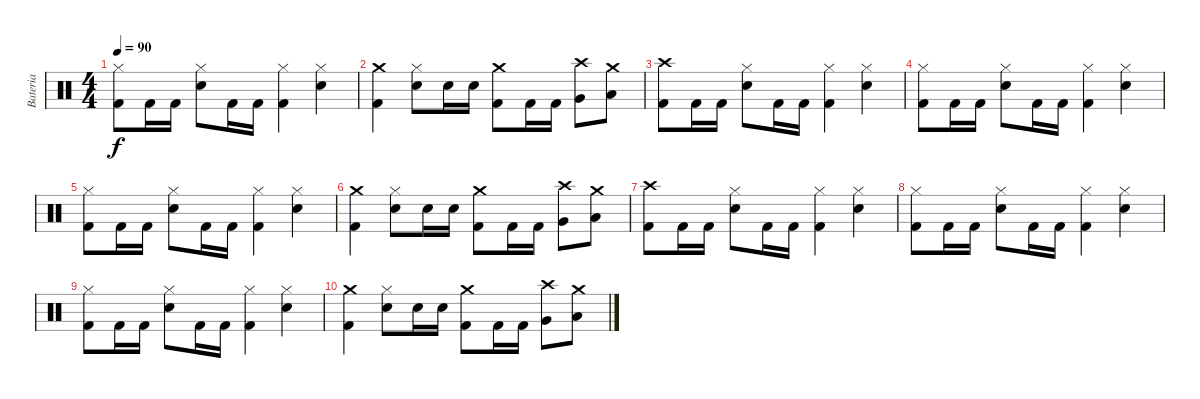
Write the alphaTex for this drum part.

\track ("Bateria" "Bateria") {instrument percussion}
\staff {score}
\articulation defaults
\ts (4 4)
\tempo 90
\clef neutral
\ks c
("Hi-Hat (closed)" "Kick (hit) 2").8{dy f} "Kick (hit) 2".16 "Kick (hit) 2".16 ("Hi-Hat (closed)" "Snare (hit) 2").8 "Kick (hit) 2".16 "Kick (hit) 2".16 ("Hi-Hat (closed)" "Kick (hit) 2").4 ("Hi-Hat (closed)" "Snare (hit) 2").4 |
("Crash medium (hit)" "Kick (hit) 2").4 ("Hi-Hat (closed)" "Snare (hit) 2").8 "Snare (hit) 2".16 "Snare (hit) 2".16 ("Crash medium (hit)" "Kick (hit) 2").8 "Kick (hit) 2".16 "Kick (hit) 2".16 ("Crash high (hit)" "Very Low Tom (hit)").8 ("Crash medium (hit)" "Low Floor Tom (hit)").8 |
("Crash high (hit)" "Kick (hit) 2").8 "Kick (hit) 2".16 "Kick (hit) 2".16 ("Hi-Hat (closed)" "Snare (hit) 2").8 "Kick (hit) 2".16 "Kick (hit) 2".16 ("Hi-Hat (closed)" "Kick (hit) 2").4 ("Hi-Hat (closed)" "Snare (hit) 2").4 |
("Hi-Hat (closed)" "Kick (hit) 2").8 "Kick (hit) 2".16 "Kick (hit) 2".16 ("Hi-Hat (closed)" "Snare (hit) 2").8 "Kick (hit) 2".16 "Kick (hit) 2".16 ("Hi-Hat (closed)" "Kick (hit) 2").4 ("Hi-Hat (closed)" "Snare (hit) 2").4 |
("Hi-Hat (closed)" "Kick (hit) 2").8 "Kick (hit) 2".16 "Kick (hit) 2".16 ("Hi-Hat (closed)" "Snare (hit) 2").8 "Kick (hit) 2".16 "Kick (hit) 2".16 ("Hi-Hat (closed)" "Kick (hit) 2").4 ("Hi-Hat (closed)" "Snare (hit) 2").4 |
("Crash medium (hit)" "Kick (hit) 2").4 ("Hi-Hat (closed)" "Snare (hit) 2").8 "Snare (hit) 2".16 "Snare (hit) 2".16 ("Crash medium (hit)" "Kick (hit) 2").8 "Kick (hit) 2".16 "Kick (hit) 2".16 ("Crash high (hit)" "Very Low Tom (hit)").8 ("Crash medium (hit)" "Low Floor Tom (hit)").8 |
("Crash high (hit)" "Kick (hit) 2").8 "Kick (hit) 2".16 "Kick (hit) 2".16 ("Hi-Hat (closed)" "Snare (hit) 2").8 "Kick (hit) 2".16 "Kick (hit) 2".16 ("Hi-Hat (closed)" "Kick (hit) 2").4 ("Hi-Hat (closed)" "Snare (hit) 2").4 |
("Hi-Hat (closed)" "Kick (hit) 2").8 "Kick (hit) 2".16 "Kick (hit) 2".16 ("Hi-Hat (closed)" "Snare (hit) 2").8 "Kick (hit) 2".16 "Kick (hit) 2".16 ("Hi-Hat (closed)" "Kick (hit) 2").4 ("Hi-Hat (closed)" "Snare (hit) 2").4 |
("Hi-Hat (closed)" "Kick (hit) 2").8 "Kick (hit) 2".16 "Kick (hit) 2".16 ("Hi-Hat (closed)" "Snare (hit) 2").8 "Kick (hit) 2".16 "Kick (hit) 2".16 ("Hi-Hat (closed)" "Kick (hit) 2").4 ("Hi-Hat (closed)" "Snare (hit) 2").4 |
("Crash medium (hit)" "Kick (hit) 2").4 ("Hi-Hat (closed)" "Snare (hit) 2").8 "Snare (hit) 2".16 "Snare (hit) 2".16 ("Crash medium (hit)" "Kick (hit) 2").8 "Kick (hit) 2".16 "Kick (hit) 2".16 ("Crash high (hit)" "Very Low Tom (hit)").8 ("Crash medium (hit)" "Low Floor Tom (hit)").8
